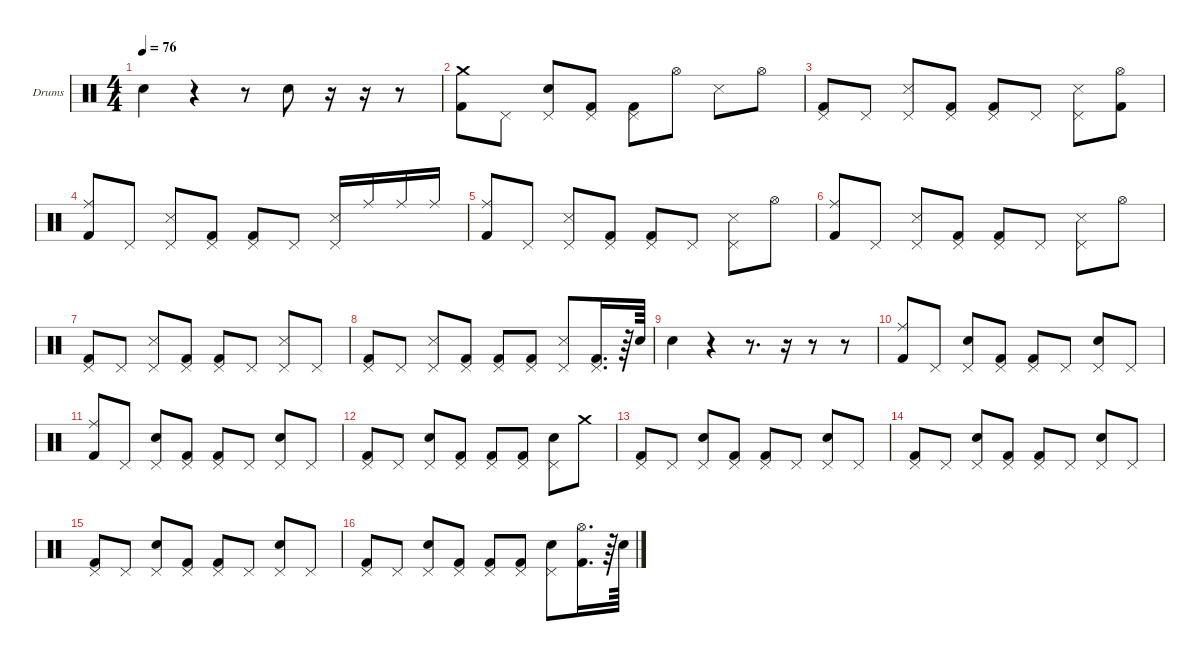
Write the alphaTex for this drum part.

\hideDynamics
\bracketExtendMode nobrackets
\firstSystemTrackNameOrientation horizontal
\otherSystemsTrackNameOrientation horizontal
\track ("Drumkit" "Drums") {instrument percussion}
\staff {score}
\articulation defaults
\ts (4 4)
\tempo 76
\clef neutral
\ks c "Snare (hit) 2".4{dy f beam Down}
r.4{beam Down} r.8{beam Down} "Snare (hit) 2".8{beam Down} r.16{beam Down} r.16{beam Down} r.8{beam Down} |
("Kick (hit) 2" "Crash medium (hit)").8{beam Down} "Pedal Hi-Hat (hit)".8{beam Down} ("Snare (hit) 2" "Pedal Hi-Hat (hit)").8{beam Up} ("Kick (hit) 2" "Pedal Hi-Hat (hit)").8{beam Up} ("Kick (hit) 2" "Pedal Hi-Hat (hit)").8{beam Down} "Hi-Hat (open)".8{beam Down} "Snare (side stick) 3".8{beam Down} "Hi-Hat (open)".8{beam Down} |
("Kick (hit) 2" "Pedal Hi-Hat (hit)").8{beam Up} "Pedal Hi-Hat (hit)".8{beam Up} ("Pedal Hi-Hat (hit)" "Snare (side stick) 3").8{beam Up} ("Kick (hit) 2" "Pedal Hi-Hat (hit)").8{beam Up} ("Kick (hit) 2" "Pedal Hi-Hat (hit)").8{beam Up} "Pedal Hi-Hat (hit)".8{beam Up} ("Pedal Hi-Hat (hit)" "Snare (side stick) 3").8{beam Down} ("Kick (hit) 2" "Hi-Hat (open)").8{beam Down} |
("Kick (hit) 2" "Ride (middle)").8{beam Up} "Pedal Hi-Hat (hit)".8{beam Up} ("Snare (side stick) 3" "Pedal Hi-Hat (hit)").8{beam Up} ("Kick (hit) 2" "Pedal Hi-Hat (hit)").8{beam Up} ("Kick (hit) 2" "Pedal Hi-Hat (hit)").8{beam Up} "Pedal Hi-Hat (hit)".8{beam Up} ("Snare (side stick) 3" "Pedal Hi-Hat (hit)").16{beam Up} "Ride (middle)".16{beam Up} "Ride (middle)".16{beam Up} "Ride (middle)".16{beam Up} |
("Kick (hit) 2" "Ride (middle)").8{beam Up} "Pedal Hi-Hat (hit)".8{beam Up} ("Pedal Hi-Hat (hit)" "Snare (side stick) 3").8{beam Up} ("Pedal Hi-Hat (hit)" "Kick (hit) 2").8{beam Up} ("Pedal Hi-Hat (hit)" "Kick (hit) 2").8{beam Up} "Pedal Hi-Hat (hit)".8{beam Up} ("Pedal Hi-Hat (hit)" "Snare (side stick) 3").8{beam Down} "Hi-Hat (open)".8{beam Down} |
("Ride (middle)" "Kick (hit) 2").8{beam Up} "Pedal Hi-Hat (hit)".8{beam Up} ("Pedal Hi-Hat (hit)" "Snare (side stick) 3").8{beam Up} ("Pedal Hi-Hat (hit)" "Kick (hit) 2").8{beam Up} ("Pedal Hi-Hat (hit)" "Kick (hit) 2").8{beam Up} "Pedal Hi-Hat (hit)".8{beam Up} ("Pedal Hi-Hat (hit)" "Snare (side stick) 3").8{beam Down} "Hi-Hat (open)".8{beam Down} |
("Kick (hit) 2" "Pedal Hi-Hat (hit)").8{beam Up} "Pedal Hi-Hat (hit)".8{beam Up} ("Pedal Hi-Hat (hit)" "Snare (side stick) 3").8{beam Up} ("Pedal Hi-Hat (hit)" "Kick (hit) 2").8{beam Up} ("Pedal Hi-Hat (hit)" "Kick (hit) 2").8{beam Up} "Pedal Hi-Hat (hit)".8{beam Up} ("Pedal Hi-Hat (hit)" "Snare (side stick) 3").8{beam Up} "Pedal Hi-Hat (hit)".8{beam Up} |
("Pedal Hi-Hat (hit)" "Kick (hit) 2").8{beam Up} "Pedal Hi-Hat (hit)".8{beam Up} ("Pedal Hi-Hat (hit)" "Snare (side stick) 3").8{beam Up} ("Pedal Hi-Hat (hit)" "Kick (hit) 2").8{beam Up} ("Pedal Hi-Hat (hit)" "Kick (hit) 2").8{beam Up} ("Pedal Hi-Hat (hit)" "Kick (hit) 2").8{beam Up} ("Pedal Hi-Hat (hit)" "Snare (side stick) 3").8{beam Up} ("Pedal Hi-Hat (hit)" "Kick (hit) 2").16{d beam Up} r.64{beam Up} "Snare (hit) 2".64{beam Up} |
"Snare (hit) 2".4{beam Down} r.4{beam Down} r.8{d beam Down} r.16{beam Down} r.8{beam Down} r.8{beam Down} |
("Ride (middle)" "Kick (hit) 2").8{beam Up} "Pedal Hi-Hat (hit)".8{beam Up} ("Pedal Hi-Hat (hit)" "Snare (hit) 2").8{beam Up} ("Pedal Hi-Hat (hit)" "Kick (hit) 2").8{beam Up} ("Pedal Hi-Hat (hit)" "Kick (hit) 2").8{beam Up} "Pedal Hi-Hat (hit)".8{beam Up} ("Pedal Hi-Hat (hit)" "Snare (hit) 2").8{beam Up} "Pedal Hi-Hat (hit)".8{beam Up} |
("Kick (hit) 2" "Ride (middle)").8{beam Up} "Pedal Hi-Hat (hit)".8{beam Up} ("Pedal Hi-Hat (hit)" "Snare (hit) 2").8{beam Up} ("Pedal Hi-Hat (hit)" "Kick (hit) 2").8{beam Up} ("Pedal Hi-Hat (hit)" "Kick (hit) 2").8{beam Up} "Pedal Hi-Hat (hit)".8{beam Up} ("Pedal Hi-Hat (hit)" "Snare (hit) 2").8{beam Up} "Pedal Hi-Hat (hit)".8{beam Up} |
("Kick (hit) 2" "Pedal Hi-Hat (hit)").8{beam Up} "Pedal Hi-Hat (hit)".8{beam Up} ("Pedal Hi-Hat (hit)" "Snare (hit) 2").8{beam Up} ("Pedal Hi-Hat (hit)" "Kick (hit) 2").8{beam Up} ("Pedal Hi-Hat (hit)" "Kick (hit) 2").8{beam Up} ("Pedal Hi-Hat (hit)" "Kick (hit) 2").8{beam Up} ("Pedal Hi-Hat (hit)" "Snare (hit) 2").8{beam Down} "Crash medium (hit)".8{beam Down} |
("Kick (hit) 2" "Pedal Hi-Hat (hit)").8{beam Up} "Pedal Hi-Hat (hit)".8{beam Up} ("Pedal Hi-Hat (hit)" "Snare (hit) 2").8{beam Up} ("Pedal Hi-Hat (hit)" "Kick (hit) 2").8{beam Up} ("Pedal Hi-Hat (hit)" "Kick (hit) 2").8{beam Up} "Pedal Hi-Hat (hit)".8{beam Up} ("Pedal Hi-Hat (hit)" "Snare (hit) 2").8{beam Up} "Pedal Hi-Hat (hit)".8{beam Up} |
("Pedal Hi-Hat (hit)" "Kick (hit) 2").8{beam Up} "Pedal Hi-Hat (hit)".8{beam Up} ("Pedal Hi-Hat (hit)" "Snare (hit) 2").8{beam Up} ("Pedal Hi-Hat (hit)" "Kick (hit) 2").8{beam Up} ("Pedal Hi-Hat (hit)" "Kick (hit) 2").8{beam Up} "Pedal Hi-Hat (hit)".8{beam Up} ("Pedal Hi-Hat (hit)" "Snare (hit) 2").8{beam Up} "Pedal Hi-Hat (hit)".8{beam Up} |
("Pedal Hi-Hat (hit)" "Kick (hit) 2").8{beam Up} "Pedal Hi-Hat (hit)".8{beam Up} ("Pedal Hi-Hat (hit)" "Snare (hit) 2").8{beam Up} ("Pedal Hi-Hat (hit)" "Kick (hit) 2").8{beam Up} ("Pedal Hi-Hat (hit)" "Kick (hit) 2").8{beam Up} "Pedal Hi-Hat (hit)".8{beam Up} ("Pedal Hi-Hat (hit)" "Snare (hit) 2").8{beam Up} "Pedal Hi-Hat (hit)".8{beam Up} |
("Pedal Hi-Hat (hit)" "Kick (hit) 2").8{beam Up} "Pedal Hi-Hat (hit)".8{beam Up} ("Pedal Hi-Hat (hit)" "Snare (hit) 2").8{beam Up} ("Pedal Hi-Hat (hit)" "Kick (hit) 2").8{beam Up} ("Pedal Hi-Hat (hit)" "Kick (hit) 2").8{beam Up} ("Pedal Hi-Hat (hit)" "Kick (hit) 2").8{beam Up} ("Pedal Hi-Hat (hit)" "Snare (hit) 2").8{beam Down} ("Kick (hit) 2" "Hi-Hat (open)").16{d beam Down} r.64{beam Down} "Snare (hit) 2".64{beam Down}
